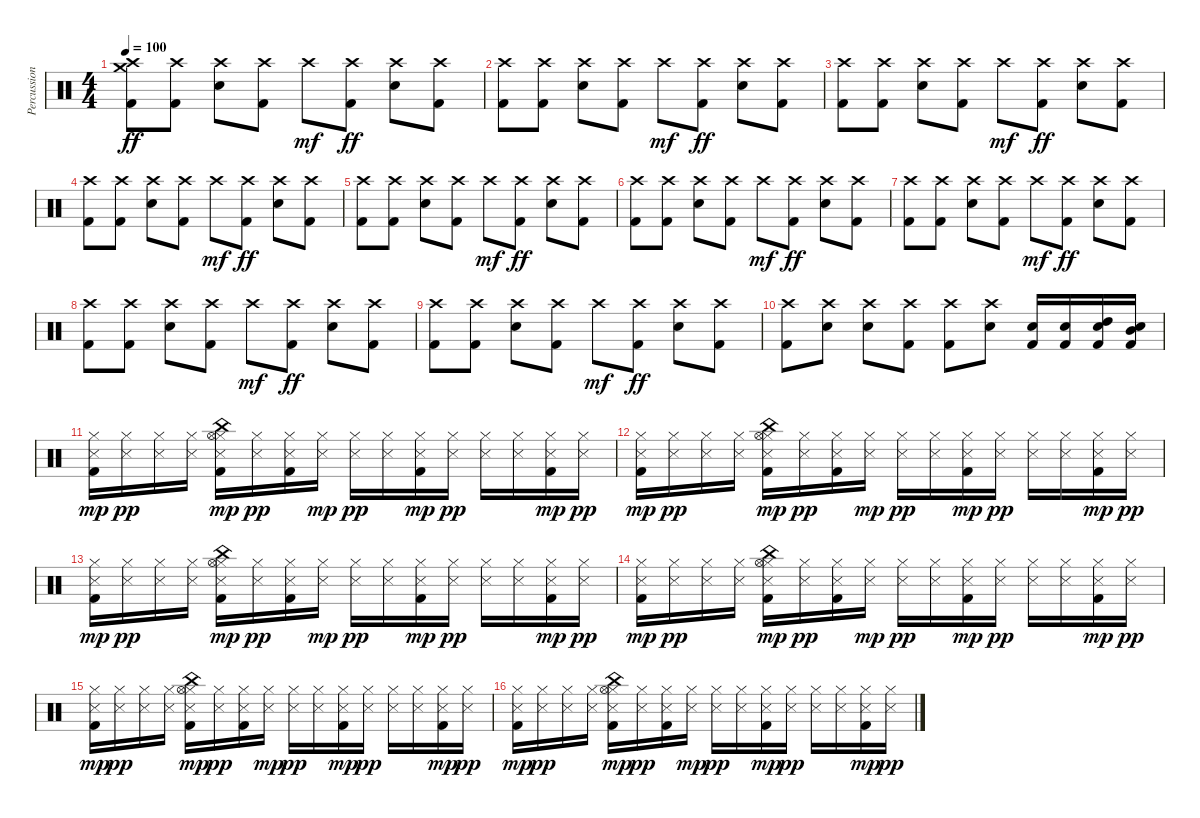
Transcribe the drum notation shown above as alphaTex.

\track ("Percussions" "Percussion") {instrument percussion}
\staff {score}
\articulation defaults
\ts (4 4)
\tempo 100
\clef neutral
\ks c
("Crash high (hit)" "Crash medium (hit)" "Kick (hit) 2").8{dy ff} ("Crash high (hit)" "Kick (hit) 2").8 ("Crash high (hit)" "Electric Snare (hit)").8 ("Crash high (hit)" "Kick (hit) 2").8 "Crash high (hit)".8{dy mf} ("Crash high (hit)" "Kick (hit) 2").8{dy ff} ("Crash high (hit)" "Electric Snare (hit)").8 ("Crash high (hit)" "Kick (hit) 2").8 |
("Crash high (hit)" "Kick (hit) 2").8 ("Crash high (hit)" "Kick (hit) 2").8 ("Crash high (hit)" "Electric Snare (hit)").8 ("Crash high (hit)" "Kick (hit) 2").8 "Crash high (hit)".8{dy mf} ("Crash high (hit)" "Kick (hit) 2").8{dy ff} ("Crash high (hit)" "Electric Snare (hit)").8 ("Crash high (hit)" "Kick (hit) 2").8 |
("Crash high (hit)" "Kick (hit) 2").8 ("Crash high (hit)" "Kick (hit) 2").8 ("Crash high (hit)" "Electric Snare (hit)").8 ("Crash high (hit)" "Kick (hit) 2").8 "Crash high (hit)".8{dy mf} ("Crash high (hit)" "Kick (hit) 2").8{dy ff} ("Crash high (hit)" "Electric Snare (hit)").8 ("Crash high (hit)" "Kick (hit) 2").8 |
("Crash high (hit)" "Kick (hit) 2").8 ("Crash high (hit)" "Kick (hit) 2").8 ("Crash high (hit)" "Electric Snare (hit)").8 ("Crash high (hit)" "Kick (hit) 2").8 "Crash high (hit)".8{dy mf} ("Crash high (hit)" "Kick (hit) 2").8{dy ff} ("Crash high (hit)" "Electric Snare (hit)").8 ("Crash high (hit)" "Kick (hit) 2").8 |
("Crash high (hit)" "Kick (hit) 2").8 ("Crash high (hit)" "Kick (hit) 2").8 ("Crash high (hit)" "Electric Snare (hit)").8 ("Crash high (hit)" "Kick (hit) 2").8 "Crash high (hit)".8{dy mf} ("Crash high (hit)" "Kick (hit) 2").8{dy ff} ("Crash high (hit)" "Electric Snare (hit)").8 ("Crash high (hit)" "Kick (hit) 2").8 |
("Crash high (hit)" "Kick (hit) 2").8 ("Crash high (hit)" "Kick (hit) 2").8 ("Crash high (hit)" "Electric Snare (hit)").8 ("Crash high (hit)" "Kick (hit) 2").8 "Crash high (hit)".8{dy mf} ("Crash high (hit)" "Kick (hit) 2").8{dy ff} ("Crash high (hit)" "Electric Snare (hit)").8 ("Crash high (hit)" "Kick (hit) 2").8 |
("Crash high (hit)" "Kick (hit) 2").8 ("Crash high (hit)" "Kick (hit) 2").8 ("Crash high (hit)" "Electric Snare (hit)").8 ("Crash high (hit)" "Kick (hit) 2").8 "Crash high (hit)".8{dy mf} ("Crash high (hit)" "Kick (hit) 2").8{dy ff} ("Crash high (hit)" "Electric Snare (hit)").8 ("Crash high (hit)" "Kick (hit) 2").8 |
("Crash high (hit)" "Kick (hit) 2").8 ("Crash high (hit)" "Kick (hit) 2").8 ("Crash high (hit)" "Electric Snare (hit)").8 ("Crash high (hit)" "Kick (hit) 2").8 "Crash high (hit)".8{dy mf} ("Crash high (hit)" "Kick (hit) 2").8{dy ff} ("Crash high (hit)" "Electric Snare (hit)").8 ("Crash high (hit)" "Kick (hit) 2").8 |
("Crash high (hit)" "Kick (hit) 2").8 ("Crash high (hit)" "Kick (hit) 2").8 ("Crash high (hit)" "Electric Snare (hit)").8 ("Crash high (hit)" "Kick (hit) 2").8 "Crash high (hit)".8{dy mf} ("Crash high (hit)" "Kick (hit) 2").8{dy ff} ("Crash high (hit)" "Electric Snare (hit)").8 ("Crash high (hit)" "Kick (hit) 2").8 |
("Crash high (hit)" "Kick (hit) 2").8 ("Crash high (hit)" "Electric Snare (hit)").8 ("Crash high (hit)" "Electric Snare (hit)").8 ("Crash high (hit)" "Kick (hit) 2").8 ("Crash high (hit)" "Kick (hit) 2").8 ("Crash high (hit)" "Electric Snare (hit)").8 ("Electric Snare (hit)" "Kick (hit) 2").16 ("Electric Snare (hit)" "Kick (hit) 2").16 ("High Tom (hit)" "Electric Snare (hit)" "Kick (hit) 2").16 ("Mid Tom (hit)" "Electric Snare (hit)" "Kick (hit) 2").16 |
("Hi-Hat (closed)" "Snare (side stick) 3" "Kick (hit) 2").16{dy mp balance 4} ("Hi-Hat (closed)" "Snare (side stick) 3").16{dy pp} ("Hi-Hat (closed)" "Snare (side stick) 3").16 ("Hi-Hat (closed)" "Snare (side stick) 3").16 ("Hi-Hat (closed)" "China (hit)" "Hi-Hat (open)" "Snare (side stick) 3" "Kick (hit) 2").16{dy mp} ("Hi-Hat (closed)" "Snare (side stick) 3").16{dy pp} ("Hi-Hat (closed)" "Snare (side stick) 3" "Kick (hit) 2").16 ("Hi-Hat (closed)" "Snare (side stick) 3").16{dy mp} ("Hi-Hat (closed)" "Snare (side stick) 3").16{dy pp} ("Hi-Hat (closed)" "Snare (side stick) 3").16 ("Hi-Hat (closed)" "Snare (side stick) 3" "Kick (hit) 2").16{dy mp} ("Hi-Hat (closed)" "Snare (side stick) 3").16{dy pp} ("Hi-Hat (closed)" "Snare (side stick) 3").16 ("Hi-Hat (closed)" "Snare (side stick) 3").16 ("Hi-Hat (closed)" "Snare (side stick) 3" "Kick (hit) 2").16{dy mp} ("Hi-Hat (closed)" "Snare (side stick) 3").16{dy pp} |
("Hi-Hat (closed)" "Snare (side stick) 3" "Kick (hit) 2").16{dy mp} ("Hi-Hat (closed)" "Snare (side stick) 3").16{dy pp} ("Hi-Hat (closed)" "Snare (side stick) 3").16 ("Hi-Hat (closed)" "Snare (side stick) 3").16 ("Hi-Hat (closed)" "China (hit)" "Hi-Hat (open)" "Snare (side stick) 3" "Kick (hit) 2").16{dy mp} ("Hi-Hat (closed)" "Snare (side stick) 3").16{dy pp} ("Hi-Hat (closed)" "Snare (side stick) 3" "Kick (hit) 2").16 ("Hi-Hat (closed)" "Snare (side stick) 3").16{dy mp} ("Hi-Hat (closed)" "Snare (side stick) 3").16{dy pp} ("Hi-Hat (closed)" "Snare (side stick) 3").16 ("Hi-Hat (closed)" "Snare (side stick) 3" "Kick (hit) 2").16{dy mp} ("Hi-Hat (closed)" "Snare (side stick) 3").16{dy pp} ("Hi-Hat (closed)" "Snare (side stick) 3").16 ("Hi-Hat (closed)" "Snare (side stick) 3").16 ("Hi-Hat (closed)" "Snare (side stick) 3" "Kick (hit) 2").16{dy mp} ("Hi-Hat (closed)" "Snare (side stick) 3").16{dy pp} |
("Hi-Hat (closed)" "Snare (side stick) 3" "Kick (hit) 2").16{dy mp} ("Hi-Hat (closed)" "Snare (side stick) 3").16{dy pp} ("Hi-Hat (closed)" "Snare (side stick) 3").16 ("Hi-Hat (closed)" "Snare (side stick) 3").16 ("Hi-Hat (closed)" "China (hit)" "Hi-Hat (open)" "Snare (side stick) 3" "Kick (hit) 2").16{dy mp} ("Hi-Hat (closed)" "Snare (side stick) 3").16{dy pp} ("Hi-Hat (closed)" "Snare (side stick) 3" "Kick (hit) 2").16 ("Hi-Hat (closed)" "Snare (side stick) 3").16{dy mp} ("Hi-Hat (closed)" "Snare (side stick) 3").16{dy pp} ("Hi-Hat (closed)" "Snare (side stick) 3").16 ("Hi-Hat (closed)" "Snare (side stick) 3" "Kick (hit) 2").16{dy mp} ("Hi-Hat (closed)" "Snare (side stick) 3").16{dy pp} ("Hi-Hat (closed)" "Snare (side stick) 3").16 ("Hi-Hat (closed)" "Snare (side stick) 3").16 ("Hi-Hat (closed)" "Snare (side stick) 3" "Kick (hit) 2").16{dy mp} ("Hi-Hat (closed)" "Snare (side stick) 3").16{dy pp} |
("Hi-Hat (closed)" "Snare (side stick) 3" "Kick (hit) 2").16{dy mp} ("Hi-Hat (closed)" "Snare (side stick) 3").16{dy pp} ("Hi-Hat (closed)" "Snare (side stick) 3").16 ("Hi-Hat (closed)" "Snare (side stick) 3").16 ("Hi-Hat (closed)" "China (hit)" "Hi-Hat (open)" "Snare (side stick) 3" "Kick (hit) 2").16{dy mp} ("Hi-Hat (closed)" "Snare (side stick) 3").16{dy pp} ("Hi-Hat (closed)" "Snare (side stick) 3" "Kick (hit) 2").16 ("Hi-Hat (closed)" "Snare (side stick) 3").16{dy mp} ("Hi-Hat (closed)" "Snare (side stick) 3").16{dy pp} ("Hi-Hat (closed)" "Snare (side stick) 3").16 ("Hi-Hat (closed)" "Snare (side stick) 3" "Kick (hit) 2").16{dy mp} ("Hi-Hat (closed)" "Snare (side stick) 3").16{dy pp} ("Hi-Hat (closed)" "Snare (side stick) 3").16 ("Hi-Hat (closed)" "Snare (side stick) 3").16 ("Hi-Hat (closed)" "Snare (side stick) 3" "Kick (hit) 2").16{dy mp} ("Hi-Hat (closed)" "Snare (side stick) 3").16{dy pp} |
("Hi-Hat (closed)" "Snare (side stick) 3" "Kick (hit) 2").16{dy mp} ("Hi-Hat (closed)" "Snare (side stick) 3").16{dy pp} ("Hi-Hat (closed)" "Snare (side stick) 3").16 ("Hi-Hat (closed)" "Snare (side stick) 3").16 ("Hi-Hat (closed)" "China (hit)" "Hi-Hat (open)" "Snare (side stick) 3" "Kick (hit) 2").16{dy mp} ("Hi-Hat (closed)" "Snare (side stick) 3").16{dy pp} ("Hi-Hat (closed)" "Snare (side stick) 3" "Kick (hit) 2").16 ("Hi-Hat (closed)" "Snare (side stick) 3").16{dy mp} ("Hi-Hat (closed)" "Snare (side stick) 3").16{dy pp} ("Hi-Hat (closed)" "Snare (side stick) 3").16 ("Hi-Hat (closed)" "Snare (side stick) 3" "Kick (hit) 2").16{dy mp} ("Hi-Hat (closed)" "Snare (side stick) 3").16{dy pp} ("Hi-Hat (closed)" "Snare (side stick) 3").16 ("Hi-Hat (closed)" "Snare (side stick) 3").16 ("Hi-Hat (closed)" "Snare (side stick) 3" "Kick (hit) 2").16{dy mp} ("Hi-Hat (closed)" "Snare (side stick) 3").16{dy pp} |
("Hi-Hat (closed)" "Snare (side stick) 3" "Kick (hit) 2").16{dy mp} ("Hi-Hat (closed)" "Snare (side stick) 3").16{dy pp} ("Hi-Hat (closed)" "Snare (side stick) 3").16 ("Hi-Hat (closed)" "Snare (side stick) 3").16 ("Hi-Hat (closed)" "China (hit)" "Hi-Hat (open)" "Snare (side stick) 3" "Kick (hit) 2").16{dy mp} ("Hi-Hat (closed)" "Snare (side stick) 3").16{dy pp} ("Hi-Hat (closed)" "Snare (side stick) 3" "Kick (hit) 2").16 ("Hi-Hat (closed)" "Snare (side stick) 3").16{dy mp} ("Hi-Hat (closed)" "Snare (side stick) 3").16{dy pp} ("Hi-Hat (closed)" "Snare (side stick) 3").16 ("Hi-Hat (closed)" "Snare (side stick) 3" "Kick (hit) 2").16{dy mp} ("Hi-Hat (closed)" "Snare (side stick) 3").16{dy pp} ("Hi-Hat (closed)" "Snare (side stick) 3").16 ("Hi-Hat (closed)" "Snare (side stick) 3").16 ("Hi-Hat (closed)" "Snare (side stick) 3" "Kick (hit) 2").16{dy mp} ("Hi-Hat (closed)" "Snare (side stick) 3").16{dy pp}
